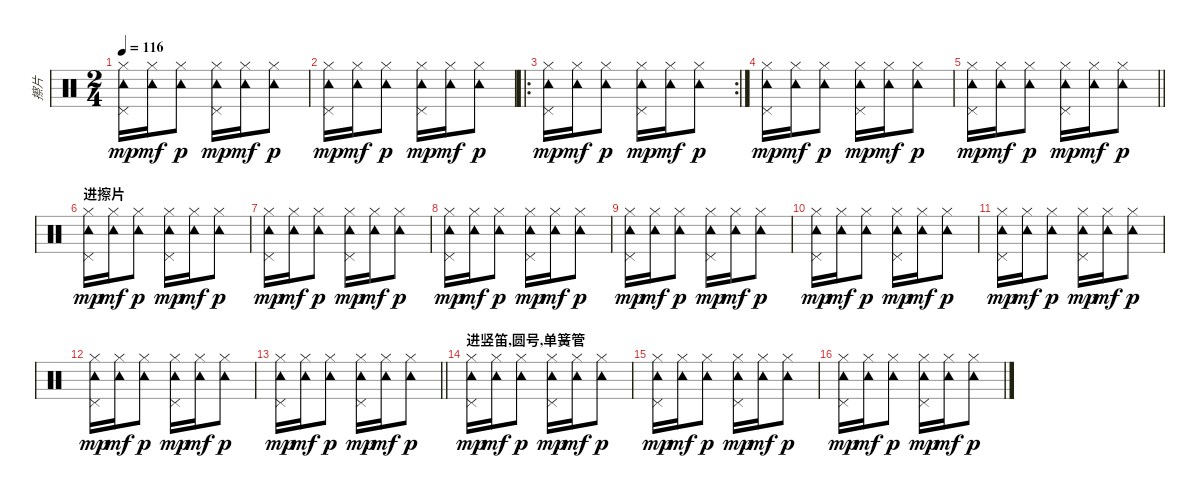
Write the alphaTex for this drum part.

\track ("擦片" "擦片") {instrument percussion}
\staff {score}
\articulation defaults
\ts (2 4)
\tempo 116
\clef neutral
\ks c
("Hi-Hat (closed)" "Tambourine (hit)" "Pedal Hi-Hat (hit)").16{dy mp} ("Hi-Hat (closed)" "Tambourine (hit)").16{dy mf} ("Hi-Hat (closed)" "Tambourine (hit)").8{dy p} ("Hi-Hat (closed)" "Tambourine (hit)" "Pedal Hi-Hat (hit)").16{dy mp} ("Hi-Hat (closed)" "Tambourine (hit)").16{dy mf} ("Hi-Hat (closed)" "Tambourine (hit)").8{dy p} |
("Hi-Hat (closed)" "Tambourine (hit)" "Pedal Hi-Hat (hit)").16{dy mp} ("Hi-Hat (closed)" "Tambourine (hit)").16{dy mf} ("Hi-Hat (closed)" "Tambourine (hit)").8{dy p} ("Hi-Hat (closed)" "Tambourine (hit)" "Pedal Hi-Hat (hit)").16{dy mp} ("Hi-Hat (closed)" "Tambourine (hit)").16{dy mf} ("Hi-Hat (closed)" "Tambourine (hit)").8{dy p} |
\ro
\rc 2
("Hi-Hat (closed)" "Tambourine (hit)" "Pedal Hi-Hat (hit)").16{dy mp} ("Hi-Hat (closed)" "Tambourine (hit)").16{dy mf} ("Hi-Hat (closed)" "Tambourine (hit)").8{dy p} ("Hi-Hat (closed)" "Tambourine (hit)" "Pedal Hi-Hat (hit)").16{dy mp} ("Hi-Hat (closed)" "Tambourine (hit)").16{dy mf} ("Hi-Hat (closed)" "Tambourine (hit)").8{dy p} |
("Hi-Hat (closed)" "Tambourine (hit)" "Pedal Hi-Hat (hit)").16{dy mp} ("Hi-Hat (closed)" "Tambourine (hit)").16{dy mf} ("Hi-Hat (closed)" "Tambourine (hit)").8{dy p} ("Hi-Hat (closed)" "Tambourine (hit)" "Pedal Hi-Hat (hit)").16{dy mp} ("Hi-Hat (closed)" "Tambourine (hit)").16{dy mf} ("Hi-Hat (closed)" "Tambourine (hit)").8{dy p} |
\barLineRight lightlight
("Hi-Hat (closed)" "Tambourine (hit)" "Pedal Hi-Hat (hit)").16{dy mp} ("Hi-Hat (closed)" "Tambourine (hit)").16{dy mf} ("Hi-Hat (closed)" "Tambourine (hit)").8{dy p} ("Hi-Hat (closed)" "Tambourine (hit)" "Pedal Hi-Hat (hit)").16{dy mp} ("Hi-Hat (closed)" "Tambourine (hit)").16{dy mf} ("Hi-Hat (closed)" "Tambourine (hit)").8{dy p} |
\section ("" "进擦片")
("Hi-Hat (closed)" "Tambourine (hit)" "Pedal Hi-Hat (hit)").16{dy mp} ("Hi-Hat (closed)" "Tambourine (hit)").16{dy mf} ("Hi-Hat (closed)" "Tambourine (hit)").8{dy p} ("Hi-Hat (closed)" "Tambourine (hit)" "Pedal Hi-Hat (hit)").16{dy mp} ("Hi-Hat (closed)" "Tambourine (hit)").16{dy mf} ("Hi-Hat (closed)" "Tambourine (hit)").8{dy p} |
("Hi-Hat (closed)" "Tambourine (hit)" "Pedal Hi-Hat (hit)").16{dy mp} ("Hi-Hat (closed)" "Tambourine (hit)").16{dy mf} ("Hi-Hat (closed)" "Tambourine (hit)").8{dy p} ("Hi-Hat (closed)" "Tambourine (hit)" "Pedal Hi-Hat (hit)").16{dy mp} ("Hi-Hat (closed)" "Tambourine (hit)").16{dy mf} ("Hi-Hat (closed)" "Tambourine (hit)").8{dy p} |
("Hi-Hat (closed)" "Tambourine (hit)" "Pedal Hi-Hat (hit)").16{dy mp} ("Hi-Hat (closed)" "Tambourine (hit)").16{dy mf} ("Hi-Hat (closed)" "Tambourine (hit)").8{dy p} ("Hi-Hat (closed)" "Tambourine (hit)" "Pedal Hi-Hat (hit)").16{dy mp} ("Hi-Hat (closed)" "Tambourine (hit)").16{dy mf} ("Hi-Hat (closed)" "Tambourine (hit)").8{dy p} |
("Hi-Hat (closed)" "Tambourine (hit)" "Pedal Hi-Hat (hit)").16{dy mp} ("Hi-Hat (closed)" "Tambourine (hit)").16{dy mf} ("Hi-Hat (closed)" "Tambourine (hit)").8{dy p} ("Hi-Hat (closed)" "Tambourine (hit)" "Pedal Hi-Hat (hit)").16{dy mp} ("Hi-Hat (closed)" "Tambourine (hit)").16{dy mf} ("Hi-Hat (closed)" "Tambourine (hit)").8{dy p} |
("Hi-Hat (closed)" "Tambourine (hit)" "Pedal Hi-Hat (hit)").16{dy mp} ("Hi-Hat (closed)" "Tambourine (hit)").16{dy mf} ("Hi-Hat (closed)" "Tambourine (hit)").8{dy p} ("Hi-Hat (closed)" "Tambourine (hit)" "Pedal Hi-Hat (hit)").16{dy mp} ("Hi-Hat (closed)" "Tambourine (hit)").16{dy mf} ("Hi-Hat (closed)" "Tambourine (hit)").8{dy p} |
("Hi-Hat (closed)" "Tambourine (hit)" "Pedal Hi-Hat (hit)").16{dy mp} ("Hi-Hat (closed)" "Tambourine (hit)").16{dy mf} ("Hi-Hat (closed)" "Tambourine (hit)").8{dy p} ("Hi-Hat (closed)" "Tambourine (hit)" "Pedal Hi-Hat (hit)").16{dy mp} ("Hi-Hat (closed)" "Tambourine (hit)").16{dy mf} ("Hi-Hat (closed)" "Tambourine (hit)").8{dy p} |
("Hi-Hat (closed)" "Tambourine (hit)" "Pedal Hi-Hat (hit)").16{dy mp} ("Hi-Hat (closed)" "Tambourine (hit)").16{dy mf} ("Hi-Hat (closed)" "Tambourine (hit)").8{dy p} ("Hi-Hat (closed)" "Tambourine (hit)" "Pedal Hi-Hat (hit)").16{dy mp} ("Hi-Hat (closed)" "Tambourine (hit)").16{dy mf} ("Hi-Hat (closed)" "Tambourine (hit)").8{dy p} |
\barLineRight lightlight
("Hi-Hat (closed)" "Tambourine (hit)" "Pedal Hi-Hat (hit)").16{dy mp} ("Hi-Hat (closed)" "Tambourine (hit)").16{dy mf} ("Hi-Hat (closed)" "Tambourine (hit)").8{dy p} ("Hi-Hat (closed)" "Tambourine (hit)" "Pedal Hi-Hat (hit)").16{dy mp} ("Hi-Hat (closed)" "Tambourine (hit)").16{dy mf} ("Hi-Hat (closed)" "Tambourine (hit)").8{dy p} |
\section ("" "进竖笛,圆号,单簧管")
("Hi-Hat (closed)" "Tambourine (hit)" "Pedal Hi-Hat (hit)").16{dy mp} ("Hi-Hat (closed)" "Tambourine (hit)").16{dy mf} ("Hi-Hat (closed)" "Tambourine (hit)").8{dy p} ("Hi-Hat (closed)" "Tambourine (hit)" "Pedal Hi-Hat (hit)").16{dy mp} ("Hi-Hat (closed)" "Tambourine (hit)").16{dy mf} ("Hi-Hat (closed)" "Tambourine (hit)").8{dy p} |
("Hi-Hat (closed)" "Tambourine (hit)" "Pedal Hi-Hat (hit)").16{dy mp} ("Hi-Hat (closed)" "Tambourine (hit)").16{dy mf} ("Hi-Hat (closed)" "Tambourine (hit)").8{dy p} ("Hi-Hat (closed)" "Tambourine (hit)" "Pedal Hi-Hat (hit)").16{dy mp} ("Hi-Hat (closed)" "Tambourine (hit)").16{dy mf} ("Hi-Hat (closed)" "Tambourine (hit)").8{dy p} |
("Hi-Hat (closed)" "Tambourine (hit)" "Pedal Hi-Hat (hit)").16{dy mp} ("Hi-Hat (closed)" "Tambourine (hit)").16{dy mf} ("Hi-Hat (closed)" "Tambourine (hit)").8{dy p} ("Hi-Hat (closed)" "Tambourine (hit)" "Pedal Hi-Hat (hit)").16{dy mp} ("Hi-Hat (closed)" "Tambourine (hit)").16{dy mf} ("Hi-Hat (closed)" "Tambourine (hit)").8{dy p}
